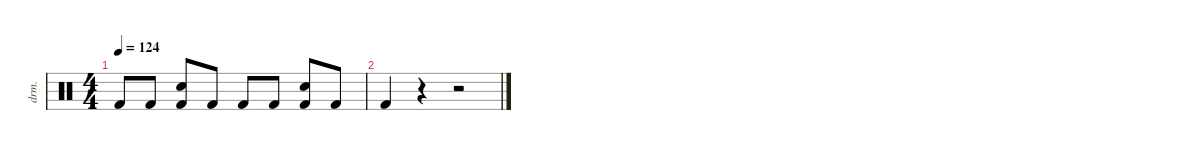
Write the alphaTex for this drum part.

\defaultSystemsLayout 4
\hideDynamics
\bracketExtendMode nobrackets
\otherSystemsTrackNameOrientation horizontal
\track ("Drums" "drm.") {instrument percussion}
\staff {score}
\articulation defaults
\ts (4 4)
\tempo 124
\clef neutral
\ks c "Kick (hit) 2".8{dy f beam Up} "Kick (hit) 2".8{beam Up}
("Kick (hit) 2" "Snare (hit) 2").8{beam Up} "Kick (hit) 2".8{beam Up} "Kick (hit) 2".8{beam Up} "Kick (hit) 2".8{beam Up} ("Kick (hit) 2" "Snare (hit) 2").8{beam Up} "Kick (hit) 2".8{beam Up} |
"Kick (hit) 2".4{beam Up} r.4{beam Up} r.2{beam Up}
